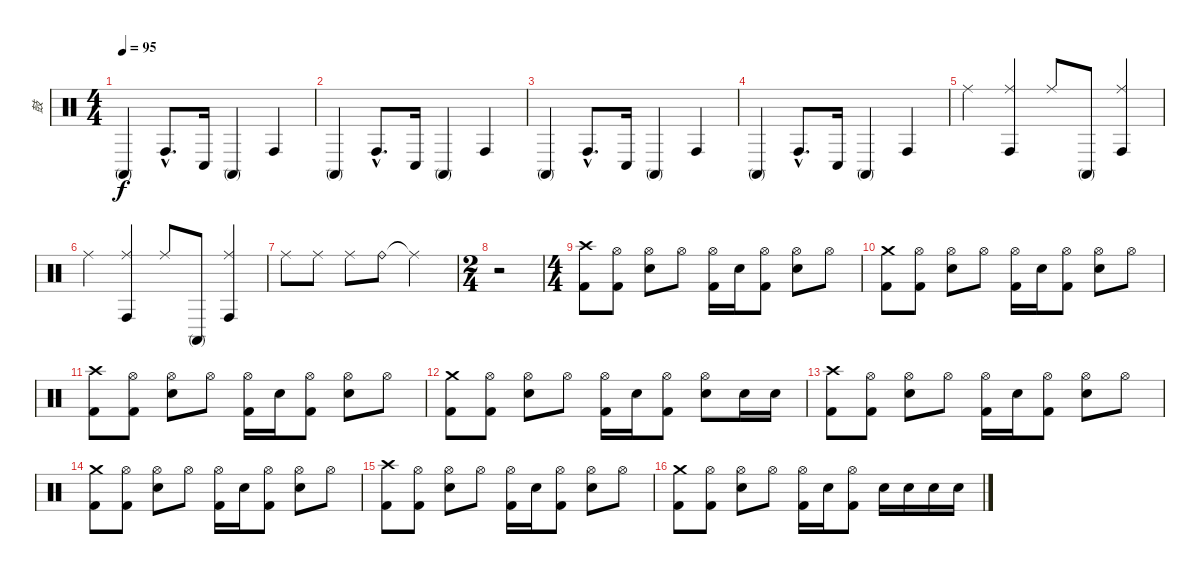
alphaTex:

\track ("鼓" "鼓") {instrument percussion}
\staff {score}
\articulation defaults
\ts (4 4)
\tempo 95
\clef neutral
\ks c "Conga high (mute)".4{dy f} "Conga high (hit)"{hac}.8{d} "Conga low (hit)".16 "Conga high (mute)".4 "Conga high (hit)".4
|
"Conga high (mute)".4 "Conga high (hit)"{hac}.8{d} "Conga low (hit)".16 "Conga high (mute)".4 "Conga high (hit)".4 |
"Conga high (mute)".4 "Conga high (hit)"{hac}.8{d} "Conga low (hit)".16 "Conga high (mute)".4 "Conga high (hit)".4 |
"Conga high (mute)".4 "Conga high (hit)"{hac}.8{d} "Conga low (hit)".16 "Conga high (mute)".4 "Conga high (hit)".4 |
"Ride (middle)".4 ("Ride (middle)" "Conga high (hit)").4 "Ride (middle)".8 "Conga high (mute)".8 ("Ride (middle)" "Conga high (hit)").4 |
"Ride (middle)".4 ("Ride (middle)" "Conga high (hit)").4 "Ride (middle)".8 "Conga high (mute)".8 ("Ride (middle)" "Conga high (hit)").4 |
"Ride (middle)".8 "Ride (middle)".8 "Ride (middle)".8 "Ride (bell)".8 "Ride (middle)"{t}.2 |
\ts (2 4)
r.2 |
\ts (4 4)
("Crash high (hit)" "Kick (hit) 2").8 ("Hi-Hat (open)" "Kick (hit) 2").8 ("Hi-Hat (open)" "Snare (hit) 2").8 "Hi-Hat (open)".8 ("Hi-Hat (open)" "Kick (hit) 2").16 "Snare (hit) 2".16 ("Hi-Hat (open)" "Kick (hit) 2").8 ("Hi-Hat (open)" "Snare (hit) 2").8 "Hi-Hat (open)".8 |
("Crash medium (hit)" "Kick (hit) 2").8 ("Hi-Hat (open)" "Kick (hit) 2").8 ("Hi-Hat (open)" "Snare (hit) 2").8 "Hi-Hat (open)".8 ("Hi-Hat (open)" "Kick (hit) 2").16 "Snare (hit) 2".16 ("Hi-Hat (open)" "Kick (hit) 2").8 ("Hi-Hat (open)" "Snare (hit) 2").8 "Hi-Hat (open)".8 |
("Crash high (hit)" "Kick (hit) 2").8 ("Hi-Hat (open)" "Kick (hit) 2").8 ("Hi-Hat (open)" "Snare (hit) 2").8 "Hi-Hat (open)".8 ("Hi-Hat (open)" "Kick (hit) 2").16 "Snare (hit) 2".16 ("Hi-Hat (open)" "Kick (hit) 2").8 ("Hi-Hat (open)" "Snare (hit) 2").8 "Hi-Hat (open)".8 |
("Crash medium (hit)" "Kick (hit) 2").8 ("Hi-Hat (open)" "Kick (hit) 2").8 ("Hi-Hat (open)" "Snare (hit) 2").8 "Hi-Hat (open)".8 ("Hi-Hat (open)" "Kick (hit) 2").16 "Snare (hit) 2".16 ("Hi-Hat (open)" "Kick (hit) 2").8 ("Hi-Hat (open)" "Snare (hit) 2").8 "Snare (hit) 2".16 "Snare (hit) 2".16 |
("Crash high (hit)" "Kick (hit) 2").8 ("Hi-Hat (open)" "Kick (hit) 2").8 ("Hi-Hat (open)" "Snare (hit) 2").8 "Hi-Hat (open)".8 ("Hi-Hat (open)" "Kick (hit) 2").16 "Snare (hit) 2".16 ("Hi-Hat (open)" "Kick (hit) 2").8 ("Hi-Hat (open)" "Snare (hit) 2").8 "Hi-Hat (open)".8 |
("Crash medium (hit)" "Kick (hit) 2").8 ("Hi-Hat (open)" "Kick (hit) 2").8 ("Hi-Hat (open)" "Snare (hit) 2").8 "Hi-Hat (open)".8 ("Hi-Hat (open)" "Kick (hit) 2").16 "Snare (hit) 2".16 ("Hi-Hat (open)" "Kick (hit) 2").8 ("Hi-Hat (open)" "Snare (hit) 2").8 "Hi-Hat (open)".8 |
("Crash high (hit)" "Kick (hit) 2").8 ("Hi-Hat (open)" "Kick (hit) 2").8 ("Hi-Hat (open)" "Snare (hit) 2").8 "Hi-Hat (open)".8 ("Hi-Hat (open)" "Kick (hit) 2").16 "Snare (hit) 2".16 ("Hi-Hat (open)" "Kick (hit) 2").8 ("Hi-Hat (open)" "Snare (hit) 2").8 "Hi-Hat (open)".8 |
("Crash medium (hit)" "Kick (hit) 2").8 ("Hi-Hat (open)" "Kick (hit) 2").8 ("Hi-Hat (open)" "Snare (hit) 2").8 "Hi-Hat (open)".8 ("Hi-Hat (open)" "Kick (hit) 2").16 "Snare (hit) 2".16 ("Hi-Hat (open)" "Kick (hit) 2").8 "Snare (hit) 2".16 "Snare (hit) 2".16 "Snare (hit) 2".16 "Snare (hit) 2".16
